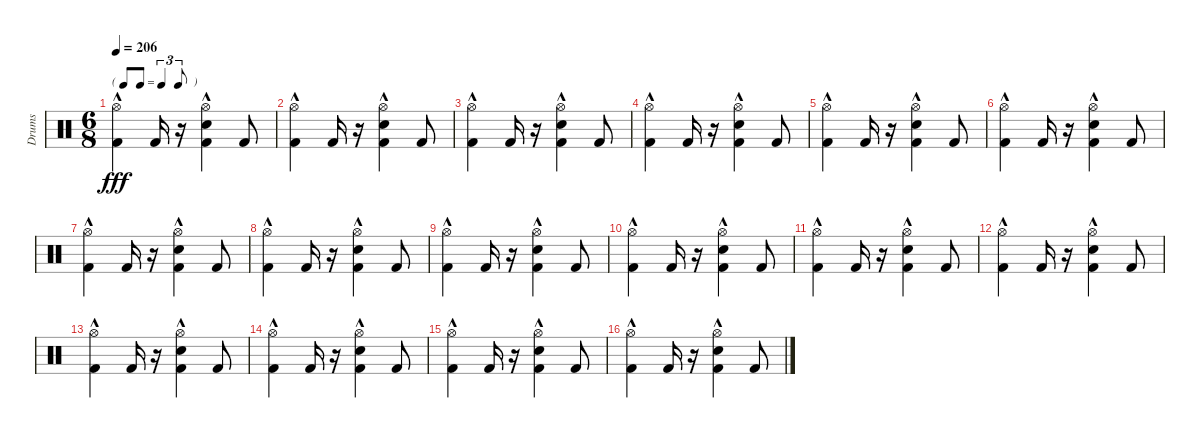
\track ("Drums" "Drums") {instrument percussion}
\staff {score}
\articulation defaults
\ts (6 8)
\tf triplet8th
\tempo 206
\clef neutral
\ks c
("Hi-Hat (open)" "Kick (hit) 2"{hac}).4{dy fff} "Kick (hit) 2".16 r.16 ("Hi-Hat (open)" "Snare (hit) 2"{hac} "Kick (hit) 2").4 "Kick (hit) 2".8 |
("Hi-Hat (open)" "Kick (hit) 2"{hac}).4 "Kick (hit) 2".16 r.16 ("Hi-Hat (open)" "Snare (hit) 2"{hac} "Kick (hit) 2").4 "Kick (hit) 2".8 |
("Hi-Hat (open)" "Kick (hit) 2"{hac}).4 "Kick (hit) 2".16 r.16 ("Hi-Hat (open)" "Snare (hit) 2"{hac} "Kick (hit) 2").4 "Kick (hit) 2".8 |
("Hi-Hat (open)" "Kick (hit) 2"{hac}).4 "Kick (hit) 2".16 r.16 ("Hi-Hat (open)" "Snare (hit) 2"{hac} "Kick (hit) 2").4 "Kick (hit) 2".8 |
("Hi-Hat (open)" "Kick (hit) 2"{hac}).4 "Kick (hit) 2".16 r.16 ("Hi-Hat (open)" "Snare (hit) 2"{hac} "Kick (hit) 2").4 "Kick (hit) 2".8 |
("Hi-Hat (open)" "Kick (hit) 2"{hac}).4 "Kick (hit) 2".16 r.16 ("Hi-Hat (open)" "Snare (hit) 2"{hac} "Kick (hit) 2").4 "Kick (hit) 2".8 |
("Hi-Hat (open)" "Kick (hit) 2"{hac}).4 "Kick (hit) 2".16 r.16 ("Hi-Hat (open)" "Snare (hit) 2"{hac} "Kick (hit) 2").4 "Kick (hit) 2".8 |
("Hi-Hat (open)" "Kick (hit) 2"{hac}).4 "Kick (hit) 2".16 r.16 ("Hi-Hat (open)" "Snare (hit) 2"{hac} "Kick (hit) 2").4 "Kick (hit) 2".8 |
("Hi-Hat (open)" "Kick (hit) 2"{hac}).4 "Kick (hit) 2".16 r.16 ("Hi-Hat (open)" "Snare (hit) 2"{hac} "Kick (hit) 2").4 "Kick (hit) 2".8 |
("Hi-Hat (open)" "Kick (hit) 2"{hac}).4 "Kick (hit) 2".16 r.16 ("Hi-Hat (open)" "Snare (hit) 2"{hac} "Kick (hit) 2").4 "Kick (hit) 2".8 |
("Hi-Hat (open)" "Kick (hit) 2"{hac}).4 "Kick (hit) 2".16 r.16 ("Hi-Hat (open)" "Snare (hit) 2"{hac} "Kick (hit) 2").4 "Kick (hit) 2".8 |
("Hi-Hat (open)" "Kick (hit) 2"{hac}).4 "Kick (hit) 2".16 r.16 ("Hi-Hat (open)" "Snare (hit) 2"{hac} "Kick (hit) 2").4 "Kick (hit) 2".8 |
("Kick (hit) 2"{hac} "Hi-Hat (open)").4 "Kick (hit) 2".16 r.16 ("Kick (hit) 2" "Hi-Hat (open)" "Snare (hit) 2"{hac}).4 "Kick (hit) 2".8 |
("Hi-Hat (open)" "Kick (hit) 2"{hac}).4 "Kick (hit) 2".16 r.16 ("Hi-Hat (open)" "Snare (hit) 2"{hac} "Kick (hit) 2").4 "Kick (hit) 2".8 |
("Hi-Hat (open)" "Kick (hit) 2"{hac}).4 "Kick (hit) 2".16 r.16 ("Hi-Hat (open)" "Snare (hit) 2"{hac} "Kick (hit) 2").4 "Kick (hit) 2".8 |
("Hi-Hat (open)" "Kick (hit) 2"{hac}).4 "Kick (hit) 2".16 r.16 ("Hi-Hat (open)" "Snare (hit) 2"{hac} "Kick (hit) 2").4 "Kick (hit) 2".8
